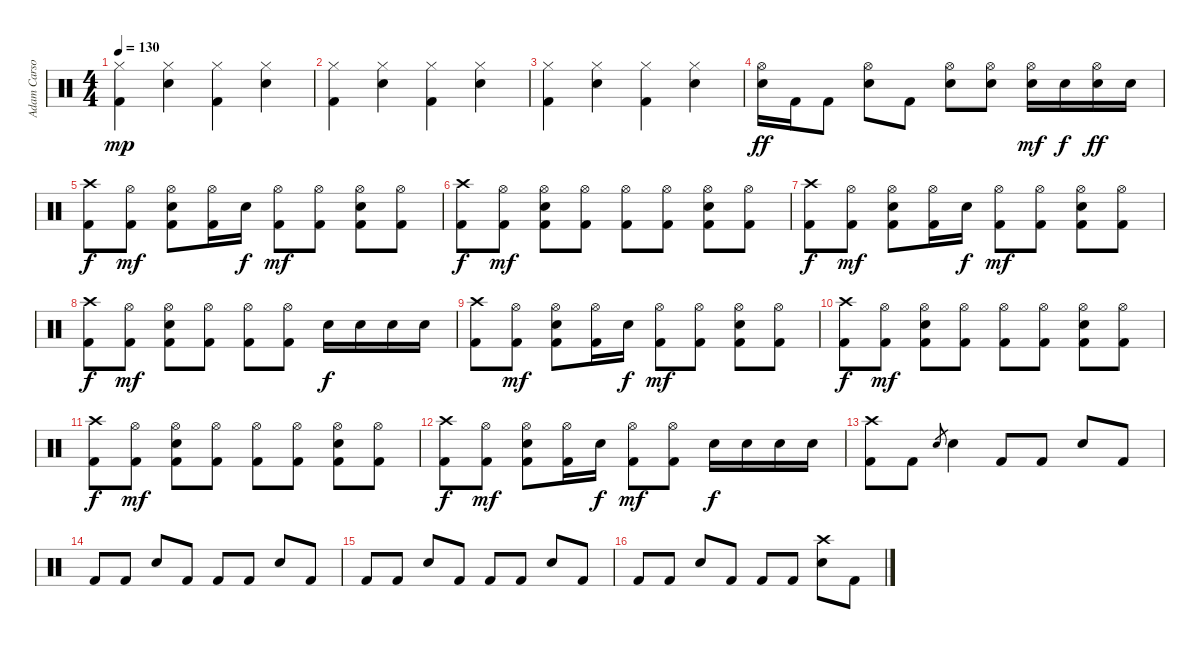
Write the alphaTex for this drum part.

\track ("Adam Carson" "Adam Carso") {instrument percussion}
\staff {score}
\articulation defaults
\ts (4 4)
\tempo 130
\clef neutral
\ks c
("Hi-Hat (closed)" "Kick (hit) 2").4{dy mp} ("Hi-Hat (closed)" "Electric Snare (hit)").4 ("Hi-Hat (closed)" "Kick (hit) 2").4 ("Hi-Hat (closed)" "Electric Snare (hit)").4 |
("Hi-Hat (closed)" "Kick (hit) 2").4 ("Hi-Hat (closed)" "Electric Snare (hit)").4 ("Hi-Hat (closed)" "Kick (hit) 2").4 ("Hi-Hat (closed)" "Electric Snare (hit)").4 |
("Hi-Hat (closed)" "Kick (hit) 2").4 ("Hi-Hat (closed)" "Electric Snare (hit)").4 ("Hi-Hat (closed)" "Kick (hit) 2").4 ("Hi-Hat (closed)" "Electric Snare (hit)").4 |
("Hi-Hat (open)" "Electric Snare (hit)").16{dy ff} "Kick (hit) 2".16 "Kick (hit) 2".8 ("Hi-Hat (open)" "Electric Snare (hit)").8 "Kick (hit) 2".8 ("Hi-Hat (open)" "Electric Snare (hit)").8 ("Hi-Hat (open)" "Electric Snare (hit)").8 ("Hi-Hat (open)" "Electric Snare (hit)").16{dy mf} "Electric Snare (hit)".16{dy f} ("Hi-Hat (open)" "Electric Snare (hit)").16{dy ff} "Electric Snare (hit)".16 |
("Crash high (hit)" "Kick (hit) 2").8{dy f} ("Hi-Hat (open)" "Kick (hit) 2").8{dy mf} ("Hi-Hat (open)" "Electric Snare (hit)" "Kick (hit) 2").8 ("Hi-Hat (open)" "Kick (hit) 2").16 "Electric Snare (hit)".16{dy f} ("Hi-Hat (open)" "Kick (hit) 2").8{dy mf} ("Hi-Hat (open)" "Kick (hit) 2").8 ("Hi-Hat (open)" "Electric Snare (hit)" "Kick (hit) 2").8 ("Hi-Hat (open)" "Kick (hit) 2").8 |
("Crash high (hit)" "Kick (hit) 2").8{dy f} ("Hi-Hat (open)" "Kick (hit) 2").8{dy mf} ("Hi-Hat (open)" "Electric Snare (hit)" "Kick (hit) 2").8 ("Hi-Hat (open)" "Kick (hit) 2").8 ("Hi-Hat (open)" "Kick (hit) 2").8 ("Hi-Hat (open)" "Kick (hit) 2").8 ("Hi-Hat (open)" "Electric Snare (hit)" "Kick (hit) 2").8 ("Hi-Hat (open)" "Kick (hit) 2").8 |
("Crash high (hit)" "Kick (hit) 2").8{dy f} ("Hi-Hat (open)" "Kick (hit) 2").8{dy mf} ("Hi-Hat (open)" "Electric Snare (hit)" "Kick (hit) 2").8 ("Hi-Hat (open)" "Kick (hit) 2").16 "Electric Snare (hit)".16{dy f} ("Hi-Hat (open)" "Kick (hit) 2").8{dy mf} ("Hi-Hat (open)" "Kick (hit) 2").8 ("Hi-Hat (open)" "Electric Snare (hit)" "Kick (hit) 2").8 ("Hi-Hat (open)" "Kick (hit) 2").8 |
("Crash high (hit)" "Kick (hit) 2").8{dy f} ("Hi-Hat (open)" "Kick (hit) 2").8{dy mf} ("Hi-Hat (open)" "Electric Snare (hit)" "Kick (hit) 2").8 ("Hi-Hat (open)" "Kick (hit) 2").8 ("Hi-Hat (open)" "Kick (hit) 2").8 ("Hi-Hat (open)" "Kick (hit) 2").8 "Electric Snare (hit)".16{dy f} "Electric Snare (hit)".16 "Electric Snare (hit)".16 "Electric Snare (hit)".16 |
("Crash high (hit)" "Kick (hit) 2").8 ("Hi-Hat (open)" "Kick (hit) 2").8{dy mf} ("Hi-Hat (open)" "Electric Snare (hit)" "Kick (hit) 2").8 ("Hi-Hat (open)" "Kick (hit) 2").16 "Electric Snare (hit)".16{dy f} ("Hi-Hat (open)" "Kick (hit) 2").8{dy mf} ("Hi-Hat (open)" "Kick (hit) 2").8 ("Hi-Hat (open)" "Electric Snare (hit)" "Kick (hit) 2").8 ("Hi-Hat (open)" "Kick (hit) 2").8 |
("Crash high (hit)" "Kick (hit) 2").8{dy f} ("Hi-Hat (open)" "Kick (hit) 2").8{dy mf} ("Hi-Hat (open)" "Electric Snare (hit)" "Kick (hit) 2").8 ("Hi-Hat (open)" "Kick (hit) 2").8 ("Hi-Hat (open)" "Kick (hit) 2").8 ("Hi-Hat (open)" "Kick (hit) 2").8 ("Hi-Hat (open)" "Electric Snare (hit)" "Kick (hit) 2").8 ("Hi-Hat (open)" "Kick (hit) 2").8 |
("Crash high (hit)" "Kick (hit) 2").8{dy f} ("Hi-Hat (open)" "Kick (hit) 2").8{dy mf} ("Hi-Hat (open)" "Electric Snare (hit)" "Kick (hit) 2").8 ("Hi-Hat (open)" "Kick (hit) 2").8 ("Hi-Hat (open)" "Kick (hit) 2").8 ("Hi-Hat (open)" "Kick (hit) 2").8 ("Hi-Hat (open)" "Electric Snare (hit)" "Kick (hit) 2").8 ("Hi-Hat (open)" "Kick (hit) 2").8 |
("Crash high (hit)" "Kick (hit) 2").8{dy f} ("Hi-Hat (open)" "Kick (hit) 2").8{dy mf} ("Hi-Hat (open)" "Electric Snare (hit)" "Kick (hit) 2").8 ("Hi-Hat (open)" "Kick (hit) 2").16 "Electric Snare (hit)".16{dy f} ("Hi-Hat (open)" "Kick (hit) 2").8{dy mf} ("Hi-Hat (open)" "Kick (hit) 2").8 "Electric Snare (hit)".16{dy f} "Electric Snare (hit)".16 "Electric Snare (hit)".16 "Electric Snare (hit)".16 |
("Crash high (hit)" "Kick (hit) 2").8 "Kick (hit) 2".8 "Electric Snare (hit)".8{gr} "Electric Snare (hit)".4 "Kick (hit) 2".8 "Kick (hit) 2".8 "Electric Snare (hit)".8 "Kick (hit) 2".8 |
"Kick (hit) 2".8 "Kick (hit) 2".8 "Electric Snare (hit)".8 "Kick (hit) 2".8 "Kick (hit) 2".8 "Kick (hit) 2".8 "Electric Snare (hit)".8 "Kick (hit) 2".8 |
"Kick (hit) 2".8 "Kick (hit) 2".8 "Electric Snare (hit)".8 "Kick (hit) 2".8 "Kick (hit) 2".8 "Kick (hit) 2".8 "Electric Snare (hit)".8 "Kick (hit) 2".8 |
"Kick (hit) 2".8 "Kick (hit) 2".8 "Electric Snare (hit)".8 "Kick (hit) 2".8 "Kick (hit) 2".8 "Kick (hit) 2".8 ("Crash high (hit)" "Electric Snare (hit)").8 "Kick (hit) 2".8
